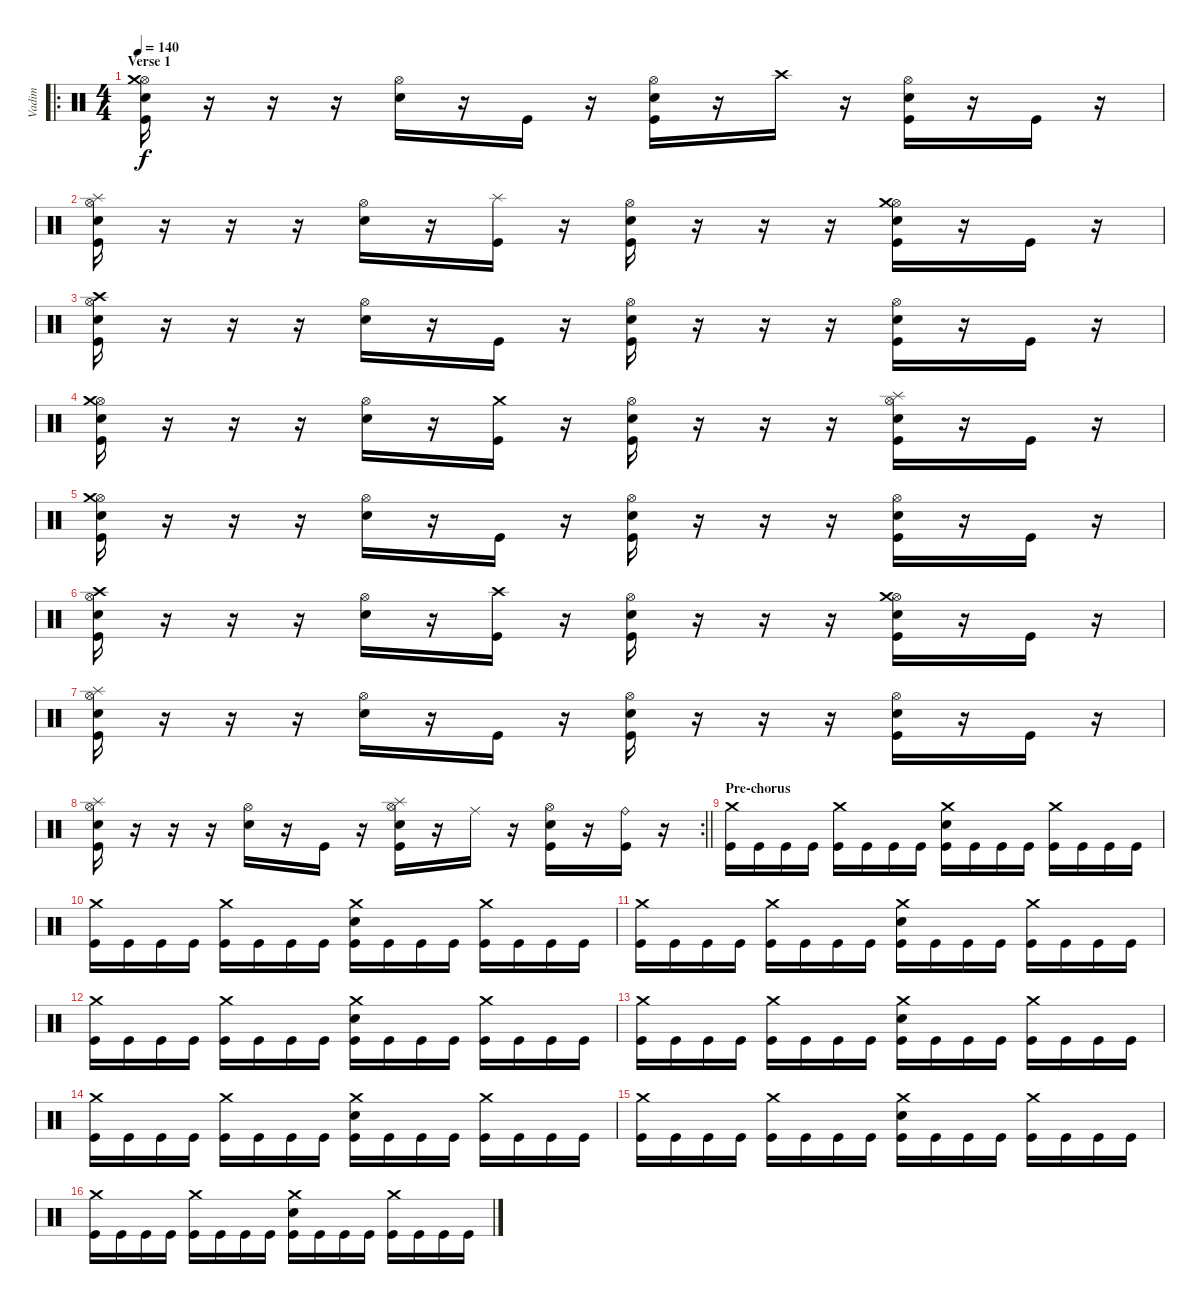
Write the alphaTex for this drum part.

\track ("Vadim" "Vadim") {instrument percussion}
\staff {score}
\articulation defaults
\ro
\ts (4 4)
\section ("" "Verse 1")
\tempo 140
\clef neutral
\ks c
("Hi-Hat (open)" "Crash medium (hit)" "Electric Snare (hit)" "Kick (hit)").16{dy f} r.16 r.16 r.16 ("Hi-Hat (open)" "Electric Snare (hit)").16 r.16 "Kick (hit)".16 r.16 ("Hi-Hat (open)" "Electric Snare (hit)" "Kick (hit)").16 r.16 "Crash high (hit)".16 r.16 ("Hi-Hat (open)" "Electric Snare (hit)" "Kick (hit)").16 r.16 "Kick (hit)".16 r.16 |
("Hi-Hat (open)" "Splash (hit)" "Electric Snare (hit)" "Kick (hit)").16 r.16 r.16 r.16 ("Hi-Hat (open)" "Electric Snare (hit)").16 r.16 ("Splash (hit)" "Kick (hit)").16 r.16 ("Hi-Hat (open)" "Electric Snare (hit)" "Kick (hit)").16 r.16 r.16 r.16 ("Hi-Hat (open)" "Crash medium (hit)" "Electric Snare (hit)" "Kick (hit)").16 r.16 "Kick (hit)".16 r.16 |
("Hi-Hat (open)" "Crash high (hit)" "Electric Snare (hit)" "Kick (hit)").16 r.16 r.16 r.16 ("Hi-Hat (open)" "Electric Snare (hit)").16 r.16 "Kick (hit)".16 r.16 ("Hi-Hat (open)" "Electric Snare (hit)" "Kick (hit)").16 r.16 r.16 r.16 ("Hi-Hat (open)" "Electric Snare (hit)" "Kick (hit)").16 r.16 "Kick (hit)".16 r.16 |
("Hi-Hat (open)" "Crash medium (hit)" "Electric Snare (hit)" "Kick (hit)").16 r.16 r.16 r.16 ("Hi-Hat (open)" "Electric Snare (hit)").16 r.16 ("Crash medium (hit)" "Kick (hit)").16 r.16 ("Hi-Hat (open)" "Electric Snare (hit)" "Kick (hit)").16 r.16 r.16 r.16 ("Hi-Hat (open)" "Splash (hit)" "Electric Snare (hit)" "Kick (hit)").16 r.16 "Kick (hit)".16 r.16 |
("Hi-Hat (open)" "Crash medium (hit)" "Electric Snare (hit)" "Kick (hit)").16 r.16 r.16 r.16 ("Hi-Hat (open)" "Electric Snare (hit)").16 r.16 "Kick (hit)".16 r.16 ("Hi-Hat (open)" "Electric Snare (hit)" "Kick (hit)").16 r.16 r.16 r.16 ("Hi-Hat (open)" "Electric Snare (hit)" "Kick (hit)").16 r.16 "Kick (hit)".16 r.16 |
("Hi-Hat (open)" "Crash high (hit)" "Electric Snare (hit)" "Kick (hit)").16 r.16 r.16 r.16 ("Hi-Hat (open)" "Electric Snare (hit)").16 r.16 ("Crash high (hit)" "Kick (hit)").16 r.16 ("Hi-Hat (open)" "Electric Snare (hit)" "Kick (hit)").16 r.16 r.16 r.16 ("Hi-Hat (open)" "Crash medium (hit)" "Electric Snare (hit)" "Kick (hit)").16 r.16 "Kick (hit)".16 r.16 |
("Hi-Hat (open)" "Splash (hit)" "Electric Snare (hit)" "Kick (hit)").16 r.16 r.16 r.16 ("Hi-Hat (open)" "Electric Snare (hit)").16 r.16 "Kick (hit)".16 r.16 ("Hi-Hat (open)" "Electric Snare (hit)" "Kick (hit)").16 r.16 r.16 r.16 ("Hi-Hat (open)" "Electric Snare (hit)" "Kick (hit)").16 r.16 "Kick (hit)".16 r.16 |
\rc 2
\barLineRight lightlight
("Hi-Hat (open)" "Splash (hit)" "Electric Snare (hit)" "Kick (hit)").16 r.16 r.16 r.16 ("Hi-Hat (open)" "Electric Snare (hit)").16 r.16 "Kick (hit)".16 r.16 ("Hi-Hat (open)" "Splash (hit)" "Electric Snare (hit)" "Kick (hit)").16 r.16 "Ride (middle)".16 r.16 ("Hi-Hat (open)" "Electric Snare (hit)" "Kick (hit)").16 r.16 ("Ride (bell)" "Kick (hit)").16 r.16 |
\section ("" "Pre-chorus")
("Crash medium (hit)" "Kick (hit)").16 "Kick (hit)".16 "Kick (hit)".16 "Kick (hit)".16 ("Crash medium (hit)" "Kick (hit)").16 "Kick (hit)".16 "Kick (hit)".16 "Kick (hit)".16 ("Crash medium (hit)" "Electric Snare (hit)" "Kick (hit)").16 "Kick (hit)".16 "Kick (hit)".16 "Kick (hit)".16 ("Crash medium (hit)" "Kick (hit)").16 "Kick (hit)".16 "Kick (hit)".16 "Kick (hit)".16 |
("Crash medium (hit)" "Kick (hit)").16 "Kick (hit)".16 "Kick (hit)".16 "Kick (hit)".16 ("Crash medium (hit)" "Kick (hit)").16 "Kick (hit)".16 "Kick (hit)".16 "Kick (hit)".16 ("Crash medium (hit)" "Electric Snare (hit)" "Kick (hit)").16 "Kick (hit)".16 "Kick (hit)".16 "Kick (hit)".16 ("Crash medium (hit)" "Kick (hit)").16 "Kick (hit)".16 "Kick (hit)".16 "Kick (hit)".16 |
("Crash medium (hit)" "Kick (hit)").16 "Kick (hit)".16 "Kick (hit)".16 "Kick (hit)".16 ("Crash medium (hit)" "Kick (hit)").16 "Kick (hit)".16 "Kick (hit)".16 "Kick (hit)".16 ("Crash medium (hit)" "Electric Snare (hit)" "Kick (hit)").16 "Kick (hit)".16 "Kick (hit)".16 "Kick (hit)".16 ("Crash medium (hit)" "Kick (hit)").16 "Kick (hit)".16 "Kick (hit)".16 "Kick (hit)".16 |
("Crash medium (hit)" "Kick (hit)").16 "Kick (hit)".16 "Kick (hit)".16 "Kick (hit)".16 ("Crash medium (hit)" "Kick (hit)").16 "Kick (hit)".16 "Kick (hit)".16 "Kick (hit)".16 ("Crash medium (hit)" "Electric Snare (hit)" "Kick (hit)").16 "Kick (hit)".16 "Kick (hit)".16 "Kick (hit)".16 ("Crash medium (hit)" "Kick (hit)").16 "Kick (hit)".16 "Kick (hit)".16 "Kick (hit)".16 |
("Crash medium (hit)" "Kick (hit)").16 "Kick (hit)".16 "Kick (hit)".16 "Kick (hit)".16 ("Crash medium (hit)" "Kick (hit)").16 "Kick (hit)".16 "Kick (hit)".16 "Kick (hit)".16 ("Crash medium (hit)" "Electric Snare (hit)" "Kick (hit)").16 "Kick (hit)".16 "Kick (hit)".16 "Kick (hit)".16 ("Crash medium (hit)" "Kick (hit)").16 "Kick (hit)".16 "Kick (hit)".16 "Kick (hit)".16 |
("Crash medium (hit)" "Kick (hit)").16 "Kick (hit)".16 "Kick (hit)".16 "Kick (hit)".16 ("Crash medium (hit)" "Kick (hit)").16 "Kick (hit)".16 "Kick (hit)".16 "Kick (hit)".16 ("Crash medium (hit)" "Electric Snare (hit)" "Kick (hit)").16 "Kick (hit)".16 "Kick (hit)".16 "Kick (hit)".16 ("Crash medium (hit)" "Kick (hit)").16 "Kick (hit)".16 "Kick (hit)".16 "Kick (hit)".16 |
("Crash medium (hit)" "Kick (hit)").16 "Kick (hit)".16 "Kick (hit)".16 "Kick (hit)".16 ("Crash medium (hit)" "Kick (hit)").16 "Kick (hit)".16 "Kick (hit)".16 "Kick (hit)".16 ("Crash medium (hit)" "Electric Snare (hit)" "Kick (hit)").16 "Kick (hit)".16 "Kick (hit)".16 "Kick (hit)".16 ("Crash medium (hit)" "Kick (hit)").16 "Kick (hit)".16 "Kick (hit)".16 "Kick (hit)".16 |
("Crash medium (hit)" "Kick (hit)").16 "Kick (hit)".16 "Kick (hit)".16 "Kick (hit)".16 ("Crash medium (hit)" "Kick (hit)").16 "Kick (hit)".16 "Kick (hit)".16 "Kick (hit)".16 ("Crash medium (hit)" "Electric Snare (hit)" "Kick (hit)").16 "Kick (hit)".16 "Kick (hit)".16 "Kick (hit)".16 ("Crash medium (hit)" "Kick (hit)").16 "Kick (hit)".16 "Kick (hit)".16 "Kick (hit)".16
